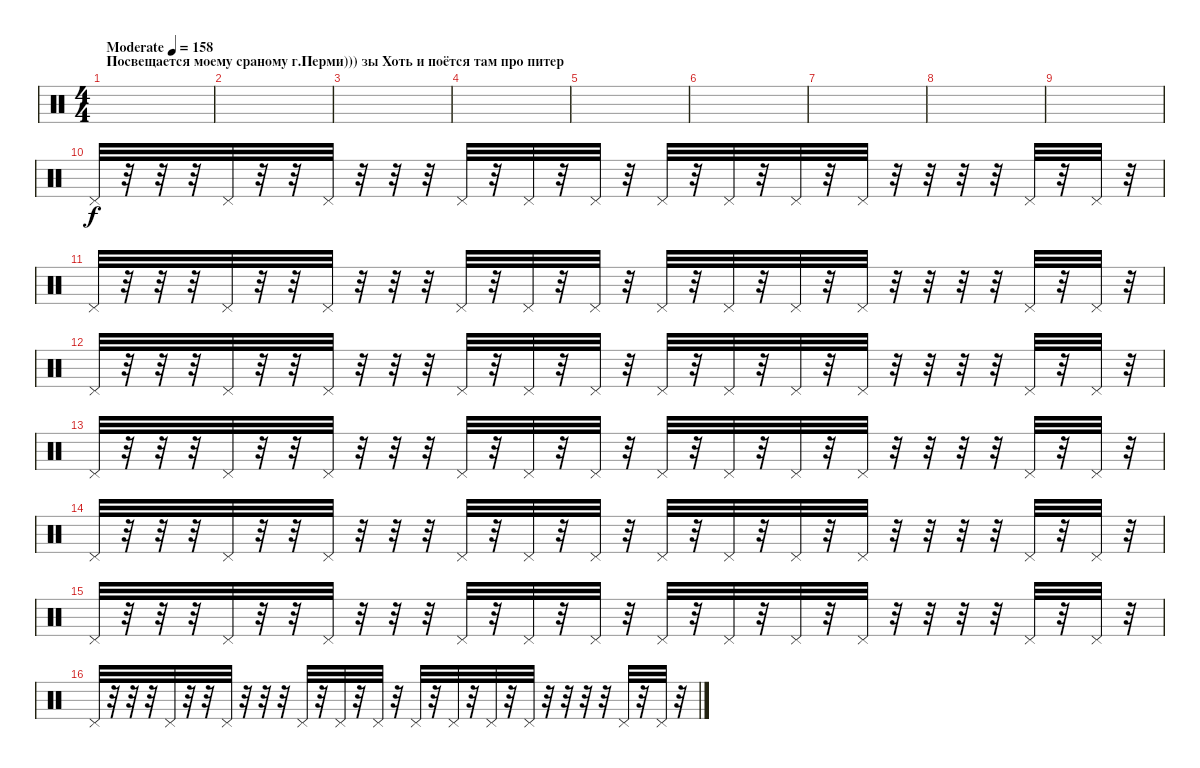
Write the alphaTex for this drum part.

\track ("   " "   ") {instrument percussion}
\staff
\articulation defaults
\ts (4 4)
\section ("" "Посвещается моему сраному г.Перми))) зы Хоть и поётся там про питер")
\tempo (158 "Moderate")
\clef neutral
\ks c
|
|
|
|
|
|
|
|
|
"Pedal Hi-Hat (hit)".32 r.32 r.32 r.32 "Pedal Hi-Hat (hit)".32 r.32 r.32 "Pedal Hi-Hat (hit)".32 r.32 r.32 r.32 "Pedal Hi-Hat (hit)".32 r.32 "Pedal Hi-Hat (hit)".32 r.32 "Pedal Hi-Hat (hit)".32 r.32 "Pedal Hi-Hat (hit)".32 r.32 "Pedal Hi-Hat (hit)".32 r.32 "Pedal Hi-Hat (hit)".32 r.32 "Pedal Hi-Hat (hit)".32 r.32 r.32 r.32 r.32 "Pedal Hi-Hat (hit)".32 r.32 "Pedal Hi-Hat (hit)".32 r.32 |
"Pedal Hi-Hat (hit)".32 r.32 r.32 r.32 "Pedal Hi-Hat (hit)".32 r.32 r.32 "Pedal Hi-Hat (hit)".32 r.32 r.32 r.32 "Pedal Hi-Hat (hit)".32 r.32 "Pedal Hi-Hat (hit)".32 r.32 "Pedal Hi-Hat (hit)".32 r.32 "Pedal Hi-Hat (hit)".32 r.32 "Pedal Hi-Hat (hit)".32 r.32 "Pedal Hi-Hat (hit)".32 r.32 "Pedal Hi-Hat (hit)".32 r.32 r.32 r.32 r.32 "Pedal Hi-Hat (hit)".32 r.32 "Pedal Hi-Hat (hit)".32 r.32 |
"Pedal Hi-Hat (hit)".32 r.32 r.32 r.32 "Pedal Hi-Hat (hit)".32 r.32 r.32 "Pedal Hi-Hat (hit)".32 r.32 r.32 r.32 "Pedal Hi-Hat (hit)".32 r.32 "Pedal Hi-Hat (hit)".32 r.32 "Pedal Hi-Hat (hit)".32 r.32 "Pedal Hi-Hat (hit)".32 r.32 "Pedal Hi-Hat (hit)".32 r.32 "Pedal Hi-Hat (hit)".32 r.32 "Pedal Hi-Hat (hit)".32 r.32 r.32 r.32 r.32 "Pedal Hi-Hat (hit)".32 r.32 "Pedal Hi-Hat (hit)".32 r.32 |
"Pedal Hi-Hat (hit)".32 r.32 r.32 r.32 "Pedal Hi-Hat (hit)".32 r.32 r.32 "Pedal Hi-Hat (hit)".32 r.32 r.32 r.32 "Pedal Hi-Hat (hit)".32 r.32 "Pedal Hi-Hat (hit)".32 r.32 "Pedal Hi-Hat (hit)".32 r.32 "Pedal Hi-Hat (hit)".32 r.32 "Pedal Hi-Hat (hit)".32 r.32 "Pedal Hi-Hat (hit)".32 r.32 "Pedal Hi-Hat (hit)".32 r.32 r.32 r.32 r.32 "Pedal Hi-Hat (hit)".32 r.32 "Pedal Hi-Hat (hit)".32 r.32 |
"Pedal Hi-Hat (hit)".32 r.32 r.32 r.32 "Pedal Hi-Hat (hit)".32 r.32 r.32 "Pedal Hi-Hat (hit)".32 r.32 r.32 r.32 "Pedal Hi-Hat (hit)".32 r.32 "Pedal Hi-Hat (hit)".32 r.32 "Pedal Hi-Hat (hit)".32 r.32 "Pedal Hi-Hat (hit)".32 r.32 "Pedal Hi-Hat (hit)".32 r.32 "Pedal Hi-Hat (hit)".32 r.32 "Pedal Hi-Hat (hit)".32 r.32 r.32 r.32 r.32 "Pedal Hi-Hat (hit)".32 r.32 "Pedal Hi-Hat (hit)".32 r.32 |
"Pedal Hi-Hat (hit)".32 r.32 r.32 r.32 "Pedal Hi-Hat (hit)".32 r.32 r.32 "Pedal Hi-Hat (hit)".32 r.32 r.32 r.32 "Pedal Hi-Hat (hit)".32 r.32 "Pedal Hi-Hat (hit)".32 r.32 "Pedal Hi-Hat (hit)".32 r.32 "Pedal Hi-Hat (hit)".32 r.32 "Pedal Hi-Hat (hit)".32 r.32 "Pedal Hi-Hat (hit)".32 r.32 "Pedal Hi-Hat (hit)".32 r.32 r.32 r.32 r.32 "Pedal Hi-Hat (hit)".32 r.32 "Pedal Hi-Hat (hit)".32 r.32 |
"Pedal Hi-Hat (hit)".32 r.32 r.32 r.32 "Pedal Hi-Hat (hit)".32 r.32 r.32 "Pedal Hi-Hat (hit)".32 r.32 r.32 r.32 "Pedal Hi-Hat (hit)".32 r.32 "Pedal Hi-Hat (hit)".32 r.32 "Pedal Hi-Hat (hit)".32 r.32 "Pedal Hi-Hat (hit)".32 r.32 "Pedal Hi-Hat (hit)".32 r.32 "Pedal Hi-Hat (hit)".32 r.32 "Pedal Hi-Hat (hit)".32 r.32 r.32 r.32 r.32 "Pedal Hi-Hat (hit)".32 r.32 "Pedal Hi-Hat (hit)".32 r.32
